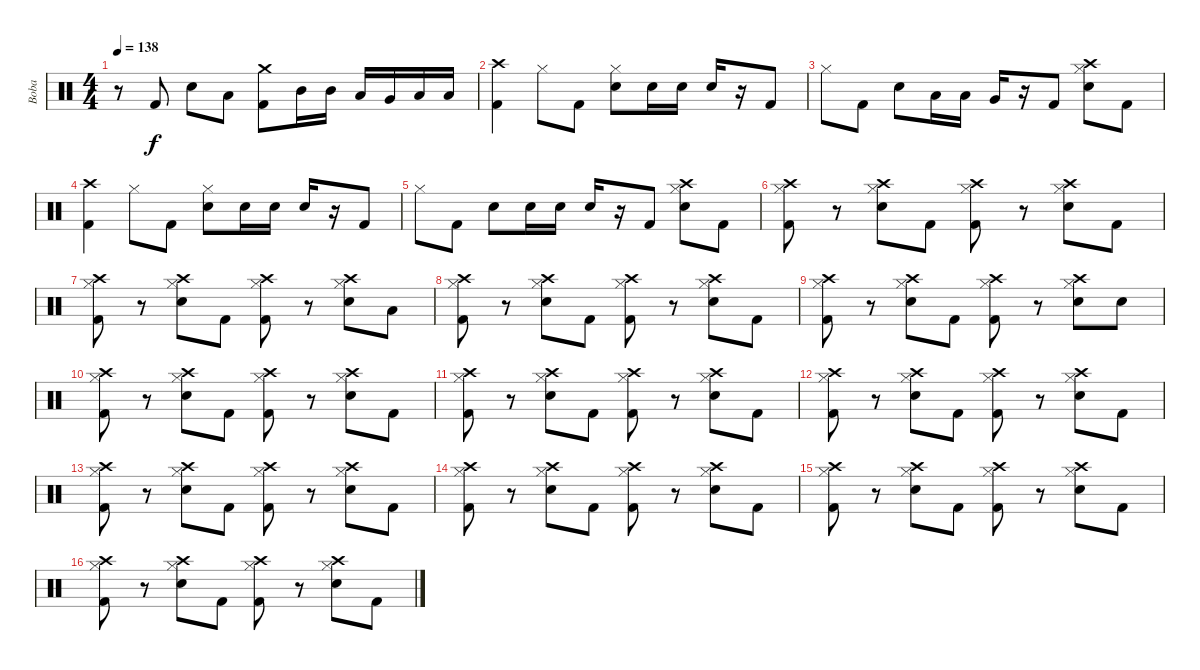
\track ("Boba" "Boba") {instrument percussion}
\staff {score}
\articulation defaults
\ts (4 4)
\tempo 138
\clef neutral
\ks c
r.8{dy f} "Kick (hit) 2".8 "Electric Snare (hit)".8 "Low Tom (hit)".8 ("Crash medium (hit)" "Kick (hit) 2").8 "Mid Tom (hit)".16 "Mid Tom (hit)".16 "Low Tom (hit)".16 "Very Low Tom (hit)".16 "Low Floor Tom (hit)".16 "Low Floor Tom (hit)".16 |
("Crash high (hit)" "Kick (hit) 2").4 "Hi-Hat (closed)".8 "Kick (hit) 2".8 ("Hi-Hat (closed)" "Electric Snare (hit)").8 "Electric Snare (hit)".16 "Electric Snare (hit)".16 "Electric Snare (hit)".16 r.16 "Kick (hit) 2".8 |
"Hi-Hat (closed)".8 "Kick (hit) 2".8 "Electric Snare (hit)".8 "Low Tom (hit)".16 "Low Tom (hit)".16 "Very Low Tom (hit)".16 r.16 "Kick (hit) 2".8 ("Crash high (hit)" "Hi-Hat (closed)" "Electric Snare (hit)").8 "Kick (hit) 2".8 |
("Crash high (hit)" "Kick (hit) 2").4 "Hi-Hat (closed)".8 "Kick (hit) 2".8 ("Hi-Hat (closed)" "Electric Snare (hit)").8 "Electric Snare (hit)".16 "Electric Snare (hit)".16 "Electric Snare (hit)".16 r.16 "Kick (hit) 2".8 |
"Hi-Hat (closed)".8 "Kick (hit) 2".8 "Electric Snare (hit)".8 "Electric Snare (hit)".16 "Electric Snare (hit)".16 "Electric Snare (hit)".16 r.16 "Kick (hit) 2".8 ("Crash high (hit)" "Hi-Hat (closed)" "Electric Snare (hit)").8 "Kick (hit) 2".8 |
("Crash high (hit)" "Hi-Hat (closed)" "Kick (hit) 2").8 r.8 ("Crash high (hit)" "Hi-Hat (closed)" "Electric Snare (hit)").8 "Kick (hit) 2".8 ("Crash high (hit)" "Hi-Hat (closed)" "Kick (hit) 2").8 r.8 ("Crash high (hit)" "Hi-Hat (closed)" "Electric Snare (hit)").8 "Kick (hit) 2".8 |
("Crash high (hit)" "Hi-Hat (closed)" "Kick (hit) 2").8 r.8 ("Crash high (hit)" "Hi-Hat (closed)" "Electric Snare (hit)").8 "Kick (hit) 2".8 ("Crash high (hit)" "Hi-Hat (closed)" "Kick (hit) 2").8 r.8 ("Crash high (hit)" "Hi-Hat (closed)" "Electric Snare (hit)").8 "Low Tom (hit)".8 |
("Crash high (hit)" "Hi-Hat (closed)" "Kick (hit) 2").8 r.8 ("Crash high (hit)" "Hi-Hat (closed)" "Electric Snare (hit)").8 "Kick (hit) 2".8 ("Crash high (hit)" "Hi-Hat (closed)" "Kick (hit) 2").8 r.8 ("Crash high (hit)" "Hi-Hat (closed)" "Electric Snare (hit)").8 "Kick (hit) 2".8 |
("Crash high (hit)" "Hi-Hat (closed)" "Kick (hit) 2").8 r.8 ("Crash high (hit)" "Hi-Hat (closed)" "Electric Snare (hit)").8 "Kick (hit) 2".8 ("Crash high (hit)" "Hi-Hat (closed)" "Kick (hit) 2").8 r.8 ("Crash high (hit)" "Hi-Hat (closed)" "Electric Snare (hit)").8 "Electric Snare (hit)".8 |
("Crash high (hit)" "Hi-Hat (closed)" "Kick (hit) 2").8 r.8 ("Crash high (hit)" "Hi-Hat (closed)" "Electric Snare (hit)").8 "Kick (hit) 2".8 ("Crash high (hit)" "Hi-Hat (closed)" "Kick (hit) 2").8 r.8 ("Crash high (hit)" "Hi-Hat (closed)" "Electric Snare (hit)").8 "Kick (hit) 2".8 |
("Crash high (hit)" "Hi-Hat (closed)" "Kick (hit) 2").8 r.8 ("Crash high (hit)" "Hi-Hat (closed)" "Electric Snare (hit)").8 "Kick (hit) 2".8 ("Crash high (hit)" "Hi-Hat (closed)" "Kick (hit) 2").8 r.8 ("Crash high (hit)" "Hi-Hat (closed)" "Electric Snare (hit)").8 "Kick (hit) 2".8 |
("Crash high (hit)" "Hi-Hat (closed)" "Kick (hit) 2").8 r.8 ("Crash high (hit)" "Hi-Hat (closed)" "Electric Snare (hit)").8 "Kick (hit) 2".8 ("Crash high (hit)" "Hi-Hat (closed)" "Kick (hit) 2").8 r.8 ("Crash high (hit)" "Hi-Hat (closed)" "Electric Snare (hit)").8 "Kick (hit) 2".8 |
("Crash high (hit)" "Hi-Hat (closed)" "Kick (hit) 2").8 r.8 ("Crash high (hit)" "Hi-Hat (closed)" "Electric Snare (hit)").8 "Kick (hit) 2".8 ("Crash high (hit)" "Hi-Hat (closed)" "Kick (hit) 2").8 r.8 ("Crash high (hit)" "Hi-Hat (closed)" "Electric Snare (hit)").8 "Kick (hit) 2".8 |
("Crash high (hit)" "Hi-Hat (closed)" "Kick (hit) 2").8 r.8 ("Crash high (hit)" "Hi-Hat (closed)" "Electric Snare (hit)").8 "Kick (hit) 2".8 ("Crash high (hit)" "Hi-Hat (closed)" "Kick (hit) 2").8 r.8 ("Crash high (hit)" "Hi-Hat (closed)" "Electric Snare (hit)").8 "Kick (hit) 2".8 |
("Crash high (hit)" "Hi-Hat (closed)" "Kick (hit) 2").8 r.8 ("Crash high (hit)" "Hi-Hat (closed)" "Electric Snare (hit)").8 "Kick (hit) 2".8 ("Crash high (hit)" "Hi-Hat (closed)" "Kick (hit) 2").8 r.8 ("Crash high (hit)" "Hi-Hat (closed)" "Electric Snare (hit)").8 "Kick (hit) 2".8 |
("Crash high (hit)" "Hi-Hat (closed)" "Kick (hit) 2").8 r.8 ("Crash high (hit)" "Hi-Hat (closed)" "Electric Snare (hit)").8 "Kick (hit) 2".8 ("Crash high (hit)" "Hi-Hat (closed)" "Kick (hit) 2").8 r.8 ("Crash high (hit)" "Hi-Hat (closed)" "Electric Snare (hit)").8 "Kick (hit) 2".8
